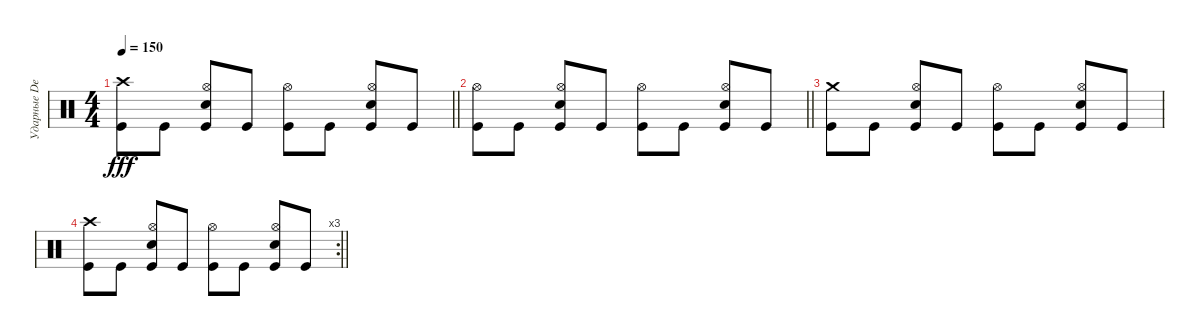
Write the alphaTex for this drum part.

\track ("Ударные Den" "Ударные De") {instrument percussion}
\staff {score}
\articulation defaults
\ts (4 4)
\tempo 150
\clef neutral
\barLineRight lightlight
\ks c
("Crash high (hit)" "Kick (hit)").8{dy fff} "Kick (hit)".8 ("Hi-Hat (open)" "Electric Snare (hit)" "Kick (hit)").8 "Kick (hit)".8 ("Hi-Hat (open)" "Kick (hit)").8 "Kick (hit)".8 ("Hi-Hat (open)" "Electric Snare (hit)" "Kick (hit)").8 "Kick (hit)".8 |
\barLineRight lightlight
("Hi-Hat (open)" "Kick (hit)").8 "Kick (hit)".8 ("Hi-Hat (open)" "Electric Snare (hit)" "Kick (hit)").8 "Kick (hit)".8 ("Hi-Hat (open)" "Kick (hit)").8 "Kick (hit)".8 ("Hi-Hat (open)" "Electric Snare (hit)" "Kick (hit)").8 "Kick (hit)".8 |
\section ("" "")
("Crash medium (hit)" "Kick (hit)").8 "Kick (hit)".8 ("Hi-Hat (open)" "Electric Snare (hit)" "Kick (hit)").8 "Kick (hit)".8 ("Hi-Hat (open)" "Kick (hit)").8 "Kick (hit)".8 ("Hi-Hat (open)" "Electric Snare (hit)" "Kick (hit)").8 "Kick (hit)".8 |
\rc 3
\barLineRight lightlight
("Crash high (hit)" "Kick (hit)").8 "Kick (hit)".8 ("Hi-Hat (open)" "Electric Snare (hit)" "Kick (hit)").8 "Kick (hit)".8 ("Hi-Hat (open)" "Kick (hit)").8 "Kick (hit)".8 ("Hi-Hat (open)" "Electric Snare (hit)" "Kick (hit)").8 "Kick (hit)".8
